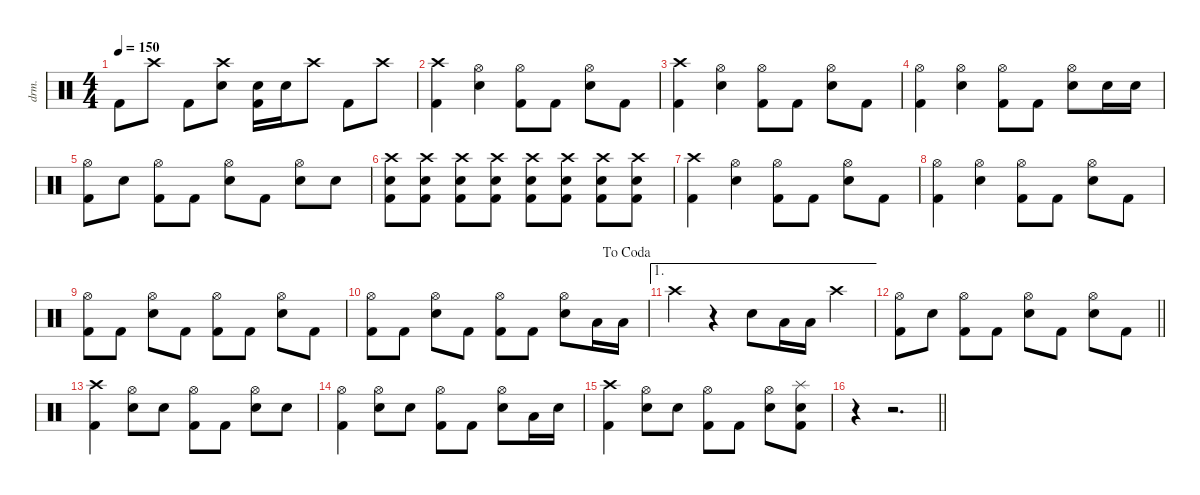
\defaultSystemsLayout 4
\hideDynamics
\bracketExtendMode nobrackets
\otherSystemsTrackNameOrientation horizontal
\track ("Drum" "drm.") {instrument percussion}
\staff {score}
\articulation defaults
\ts (4 4)
\tempo 150
\clef neutral
\ks c "Kick (hit) 2".8{dy ff beam Down} "Crash high (hit)".8{beam Down} "Kick (hit) 2".8{beam Down}
("Crash high (hit)" "Snare (hit) 2").8{beam Down} ("Snare (hit) 2" "Kick (hit) 2").16{beam Down} "Snare (hit) 2".16{beam Down} "Crash high (hit)".8{beam Down} "Kick (hit) 2".8{beam Down} "Crash high (hit)".8{beam Down} |
("Crash high (hit)" "Kick (hit) 2").4{dy mf beam Down} ("Hi-Hat (open)" "Snare (hit) 2").4{beam Down} ("Hi-Hat (open)" "Kick (hit) 2").8{beam Down} "Kick (hit) 2".8{dy ff beam Down} ("Hi-Hat (open)" "Snare (hit) 2").8{dy mf beam Down} "Kick (hit) 2".8{dy ff beam Down} |
("Crash high (hit)" "Kick (hit) 2").4{dy mf beam Down} ("Hi-Hat (open)" "Snare (hit) 2").4{beam Down} ("Hi-Hat (open)" "Kick (hit) 2").8{beam Down} "Kick (hit) 2".8{dy ff beam Down} ("Hi-Hat (open)" "Snare (hit) 2").8{dy mf beam Down} "Kick (hit) 2".8{dy ff beam Down} |
("Hi-Hat (open)" "Kick (hit) 2").4{beam Down} ("Hi-Hat (open)" "Snare (hit) 2").4{dy mf beam Down} ("Hi-Hat (open)" "Kick (hit) 2").8{beam Down} "Kick (hit) 2".8{dy ff beam Down} ("Hi-Hat (open)" "Snare (hit) 2").8{dy mf beam Down} "Snare (hit) 2".16{dy ff beam Down} "Snare (hit) 2".16{beam Down} |
("Hi-Hat (open)" "Kick (hit) 2").8{beam Down} "Snare (hit) 2".8{beam Down} ("Hi-Hat (open)" "Kick (hit) 2").8{beam Down} "Kick (hit) 2".8{beam Down} ("Hi-Hat (open)" "Snare (hit) 2").8{beam Down} "Kick (hit) 2".8{beam Down} ("Hi-Hat (open)" "Snare (hit) 2").8{beam Down} "Snare (hit) 2".8{beam Down} |
("Crash high (hit)" "Snare (hit) 2" "Kick (hit) 2").8{beam Down} ("Crash high (hit)" "Snare (hit) 2" "Kick (hit) 2").8{beam Down} ("Crash high (hit)" "Snare (hit) 2" "Kick (hit) 2").8{beam Down} ("Crash high (hit)" "Snare (hit) 2" "Kick (hit) 2").8{beam Down} ("Crash high (hit)" "Snare (hit) 2" "Kick (hit) 2").8{beam Down} ("Crash high (hit)" "Snare (hit) 2" "Kick (hit) 2").8{beam Down} ("Crash high (hit)" "Snare (hit) 2" "Kick (hit) 2").8{beam Down} ("Crash high (hit)" "Snare (hit) 2" "Kick (hit) 2").8{beam Down} |
("Crash high (hit)" "Kick (hit) 2").4{dy mf beam Down} ("Hi-Hat (open)" "Snare (hit) 2").4{beam Down} ("Hi-Hat (open)" "Kick (hit) 2").8{beam Down} "Kick (hit) 2".8{dy ff beam Down} ("Hi-Hat (open)" "Snare (hit) 2").8{dy mf beam Down} "Kick (hit) 2".8{dy ff beam Down} |
("Hi-Hat (open)" "Kick (hit) 2").4{beam Down} ("Hi-Hat (open)" "Snare (hit) 2").4{dy mf beam Down} ("Hi-Hat (open)" "Kick (hit) 2").8{beam Down} "Kick (hit) 2".8{dy ff beam Down} ("Hi-Hat (open)" "Snare (hit) 2").8{dy mf beam Down} "Kick (hit) 2".8{dy ff beam Down} |
("Hi-Hat (open)" "Kick (hit) 2").8{beam Down} "Kick (hit) 2".8{beam Down} ("Hi-Hat (open)" "Snare (hit) 2").8{beam Down} "Kick (hit) 2".8{beam Down} ("Hi-Hat (open)" "Kick (hit) 2").8{beam Down} "Kick (hit) 2".8{beam Down} ("Hi-Hat (open)" "Snare (hit) 2").8{beam Down} "Kick (hit) 2".8{beam Down} |
\jump dacoda
("Hi-Hat (open)" "Kick (hit) 2").8{beam Down} "Kick (hit) 2".8{beam Down} ("Hi-Hat (open)" "Snare (hit) 2").8{beam Down} "Kick (hit) 2".8{beam Down} ("Hi-Hat (open)" "Kick (hit) 2").8{beam Down} "Kick (hit) 2".8{beam Down} ("Hi-Hat (open)" "Snare (hit) 2").8{beam Down} "Low Tom (hit)".16{beam Down} "Low Tom (hit)".16{beam Down} |
\ae 1 "Crash high (hit)".4{beam Down}
r.4{beam Down} "Snare (hit) 2".8{beam Down} "Low Tom (hit)".16{beam Down} "Low Tom (hit)".16{beam Down} "Crash high (hit)".4{beam Down} |
\barLineRight lightlight
("Hi-Hat (open)" "Kick (hit) 2").8{beam Down} "Snare (hit) 2".8{beam Down} ("Hi-Hat (open)" "Kick (hit) 2").8{beam Down} "Kick (hit) 2".8{beam Down} ("Hi-Hat (open)" "Snare (hit) 2").8{beam Down} "Kick (hit) 2".8{beam Down} ("Hi-Hat (open)" "Snare (hit) 2").8{beam Down} "Kick (hit) 2".8{beam Down} |
("Crash high (hit)" "Kick (hit) 2").4{beam Down} ("Snare (hit) 2" "Hi-Hat (open)").8{beam Down} "Snare (hit) 2".8{beam Down} ("Hi-Hat (open)" "Kick (hit) 2").8{beam Down} "Kick (hit) 2".8{dy f beam Down} ("Snare (hit) 2" "Hi-Hat (open)").8{dy ff beam Down} "Snare (hit) 2".8{beam Down} |
("Hi-Hat (open)" "Kick (hit) 2").4{beam Down} ("Snare (hit) 2" "Hi-Hat (open)").8{beam Down} "Snare (hit) 2".8{beam Down} ("Hi-Hat (open)" "Kick (hit) 2").8{beam Down} "Kick (hit) 2".8{dy f beam Down} ("Snare (hit) 2" "Hi-Hat (open)").8{dy ff beam Down} "Low Floor Tom (hit)".16{beam Down} "Snare (hit) 2".16{beam Down} |
("Crash high (hit)" "Kick (hit) 2").4{beam Down} ("Snare (hit) 2" "Hi-Hat (open)").8{beam Down} "Snare (hit) 2".8{beam Down} ("Hi-Hat (open)" "Kick (hit) 2").8{beam Down} "Kick (hit) 2".8{dy f beam Down} ("Snare (hit) 2" "Hi-Hat (open)").8{dy ff beam Down} ("Snare (hit) 2" "Splash (hit)" "Kick (hit) 2").8{beam Down} |
\barLineRight lightlight
r.4{beam Down} r.2{d beam Down}
